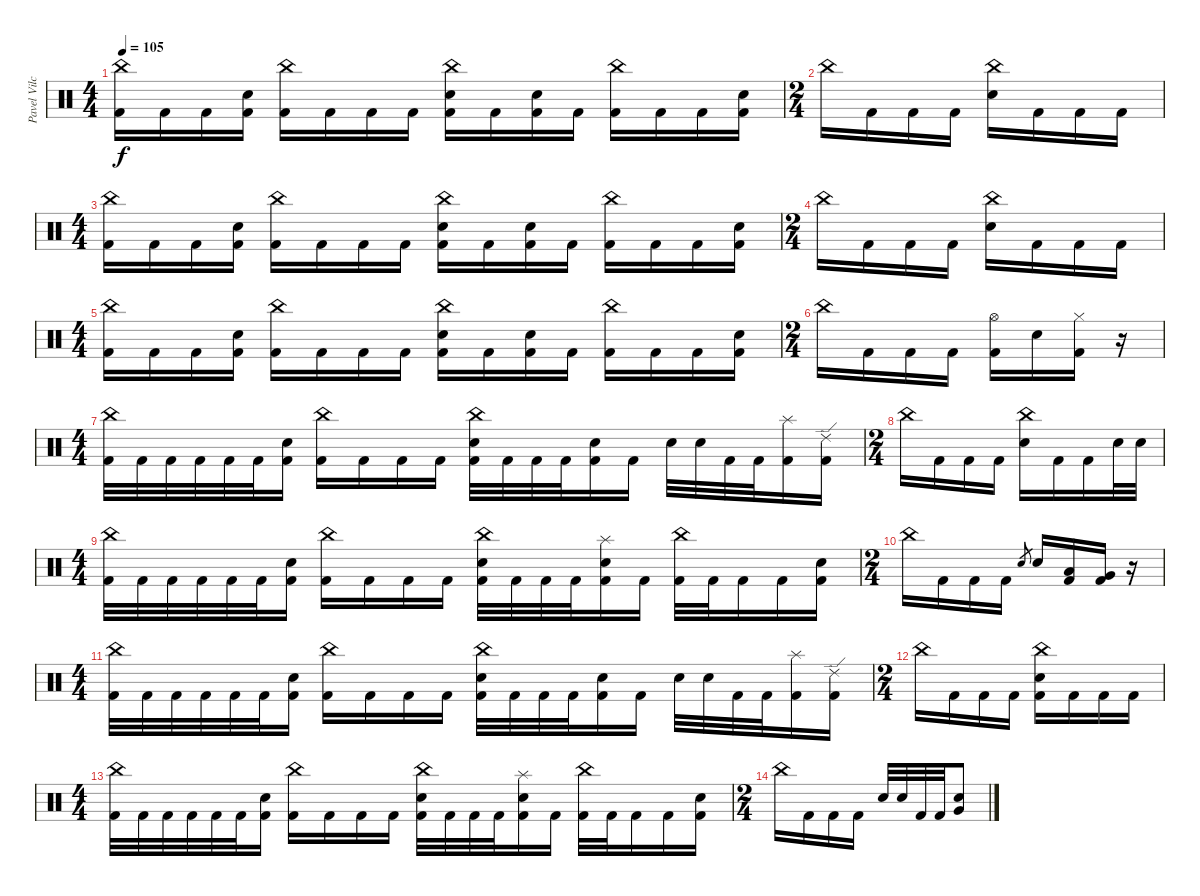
\track ("Pavel Vilchytski " "Pavel Vilc") {instrument percussion}
\staff {score}
\articulation defaults
\ts (4 4)
\tempo 105
\clef neutral
\ks c
("China (hit)" "Kick (hit) 2").16{dy f} "Kick (hit) 2".16 "Kick (hit) 2".16 ("Electric Snare (hit)" "Kick (hit) 2").16 ("China (hit)" "Kick (hit) 2").16 "Kick (hit) 2".16 "Kick (hit) 2".16 "Kick (hit) 2".16 ("China (hit)" "Electric Snare (hit)" "Kick (hit) 2").16 "Kick (hit) 2".16 ("Electric Snare (hit)" "Kick (hit) 2").16 "Kick (hit) 2".16 ("China (hit)" "Kick (hit) 2").16 "Kick (hit) 2".16 "Kick (hit) 2".16 ("Electric Snare (hit)" "Kick (hit) 2").16 |
\ts (2 4)
"China (hit)".16 "Kick (hit) 2".16 "Kick (hit) 2".16 "Kick (hit) 2".16 ("China (hit)" "Electric Snare (hit)").16 "Kick (hit) 2".16 "Kick (hit) 2".16 "Kick (hit) 2".16 |
\ts (4 4)
("China (hit)" "Kick (hit) 2").16 "Kick (hit) 2".16 "Kick (hit) 2".16 ("Electric Snare (hit)" "Kick (hit) 2").16 ("China (hit)" "Kick (hit) 2").16 "Kick (hit) 2".16 "Kick (hit) 2".16 "Kick (hit) 2".16 ("China (hit)" "Electric Snare (hit)" "Kick (hit) 2").16 "Kick (hit) 2".16 ("Electric Snare (hit)" "Kick (hit) 2").16 "Kick (hit) 2".16 ("China (hit)" "Kick (hit) 2").16 "Kick (hit) 2".16 "Kick (hit) 2".16 ("Electric Snare (hit)" "Kick (hit) 2").16 |
\ts (2 4)
"China (hit)".16 "Kick (hit) 2".16 "Kick (hit) 2".16 "Kick (hit) 2".16 ("China (hit)" "Electric Snare (hit)").16 "Kick (hit) 2".16 "Kick (hit) 2".16 "Kick (hit) 2".16 |
\ts (4 4)
("China (hit)" "Kick (hit) 2").16 "Kick (hit) 2".16 "Kick (hit) 2".16 ("Electric Snare (hit)" "Kick (hit) 2").16 ("China (hit)" "Kick (hit) 2").16 "Kick (hit) 2".16 "Kick (hit) 2".16 "Kick (hit) 2".16 ("China (hit)" "Electric Snare (hit)" "Kick (hit) 2").16 "Kick (hit) 2".16 ("Electric Snare (hit)" "Kick (hit) 2").16 "Kick (hit) 2".16 ("China (hit)" "Kick (hit) 2").16 "Kick (hit) 2".16 "Kick (hit) 2".16 ("Electric Snare (hit)" "Kick (hit) 2").16 |
\ts (2 4)
"China (hit)".16 "Kick (hit) 2".16 "Kick (hit) 2".16 "Kick (hit) 2".16 ("Hi-Hat (open)" "Kick (hit) 2").16 "Electric Snare (hit)".16 ("Hi-Hat (closed)" "Kick (hit) 2").16 r.16 |
\ts (4 4)
("China (hit)" "Kick (hit) 2").32 "Kick (hit) 2".32 "Kick (hit) 2".32 "Kick (hit) 2".32 "Kick (hit) 2".32 "Kick (hit) 2".32 ("Electric Snare (hit)" "Kick (hit) 2").16 ("China (hit)" "Kick (hit) 2").16 "Kick (hit) 2".16 "Kick (hit) 2".16 "Kick (hit) 2".16 ("China (hit)" "Electric Snare (hit)" "Kick (hit) 2").32 "Kick (hit) 2".32 "Kick (hit) 2".32 "Kick (hit) 2".32 ("Electric Snare (hit)" "Kick (hit) 2").16 "Kick (hit) 2".16 "Electric Snare (hit)".32 "Electric Snare (hit)".32 "Kick (hit) 2".32 "Kick (hit) 2".32 ("Splash (hit)" "Kick (hit) 2").16 ("Ride (edge) 2" "Kick (hit) 2").16 |
\ts (2 4)
"China (hit)".16 "Kick (hit) 2".16 "Kick (hit) 2".16 "Kick (hit) 2".16 ("China (hit)" "Electric Snare (hit)").16 "Kick (hit) 2".16 "Kick (hit) 2".16 "Electric Snare (hit)".32 "Electric Snare (hit)".32 |
\ts (4 4)
("China (hit)" "Kick (hit) 2").32 "Kick (hit) 2".32 "Kick (hit) 2".32 "Kick (hit) 2".32 "Kick (hit) 2".32 "Kick (hit) 2".32 ("Electric Snare (hit)" "Kick (hit) 2").16 ("China (hit)" "Kick (hit) 2").16 "Kick (hit) 2".16 "Kick (hit) 2".16 "Kick (hit) 2".16 ("China (hit)" "Electric Snare (hit)" "Kick (hit) 2").32 "Kick (hit) 2".32 "Kick (hit) 2".32 "Kick (hit) 2".32 ("Splash (hit)" "Electric Snare (hit)" "Kick (hit) 2").16 "Kick (hit) 2".16 ("China (hit)" "Kick (hit) 2").32 "Kick (hit) 2".32 "Kick (hit) 2".16 "Kick (hit) 2".16 ("Electric Snare (hit)" "Kick (hit) 2").16 |
\ts (2 4)
"China (hit)".16 "Kick (hit) 2".16 "Kick (hit) 2".16 "Kick (hit) 2".16 "Electric Snare (hit)".8{gr} "Electric Snare (hit)".16 ("Low Tom (hit)" "Kick (hit) 2").16 ("Very Low Tom (hit)" "Kick (hit) 2").16 r.16 |
\ts (4 4)
("China (hit)" "Kick (hit) 2").32 "Kick (hit) 2".32 "Kick (hit) 2".32 "Kick (hit) 2".32 "Kick (hit) 2".32 "Kick (hit) 2".32 ("Electric Snare (hit)" "Kick (hit) 2").16 ("China (hit)" "Kick (hit) 2").16 "Kick (hit) 2".16 "Kick (hit) 2".16 "Kick (hit) 2".16 ("China (hit)" "Electric Snare (hit)" "Kick (hit) 2").32 "Kick (hit) 2".32 "Kick (hit) 2".32 "Kick (hit) 2".32 ("Electric Snare (hit)" "Kick (hit) 2").16 "Kick (hit) 2".16 "Electric Snare (hit)".32 "Electric Snare (hit)".32 "Kick (hit) 2".32 "Kick (hit) 2".32 ("Splash (hit)" "Kick (hit) 2").16 ("Ride (edge) 2" "Kick (hit) 2").16 |
\ts (2 4)
"China (hit)".16 "Kick (hit) 2".16 "Kick (hit) 2".16 "Kick (hit) 2".16 ("China (hit)" "Electric Snare (hit)" "Kick (hit) 2").16 "Kick (hit) 2".16 "Kick (hit) 2".16 "Kick (hit) 2".16 |
\ts (4 4)
("China (hit)" "Kick (hit) 2").32 "Kick (hit) 2".32 "Kick (hit) 2".32 "Kick (hit) 2".32 "Kick (hit) 2".32 "Kick (hit) 2".32 ("Electric Snare (hit)" "Kick (hit) 2").16 ("China (hit)" "Kick (hit) 2").16 "Kick (hit) 2".16 "Kick (hit) 2".16 "Kick (hit) 2".16 ("China (hit)" "Electric Snare (hit)" "Kick (hit) 2").32 "Kick (hit) 2".32 "Kick (hit) 2".32 "Kick (hit) 2".32 ("Splash (hit)" "Electric Snare (hit)" "Kick (hit) 2").16 "Kick (hit) 2".16 ("China (hit)" "Kick (hit) 2").32 "Kick (hit) 2".32 "Kick (hit) 2".16 "Kick (hit) 2".16 ("Electric Snare (hit)" "Kick (hit) 2").16 |
\ts (2 4)
"China (hit)".16 "Kick (hit) 2".16 "Kick (hit) 2".16 "Kick (hit) 2".16 "Electric Snare (hit)".32 "Electric Snare (hit)".32 "Kick (hit) 2".32 "Kick (hit) 2".32 ("Electric Snare (hit)" "Very Low Tom (hit)").8
